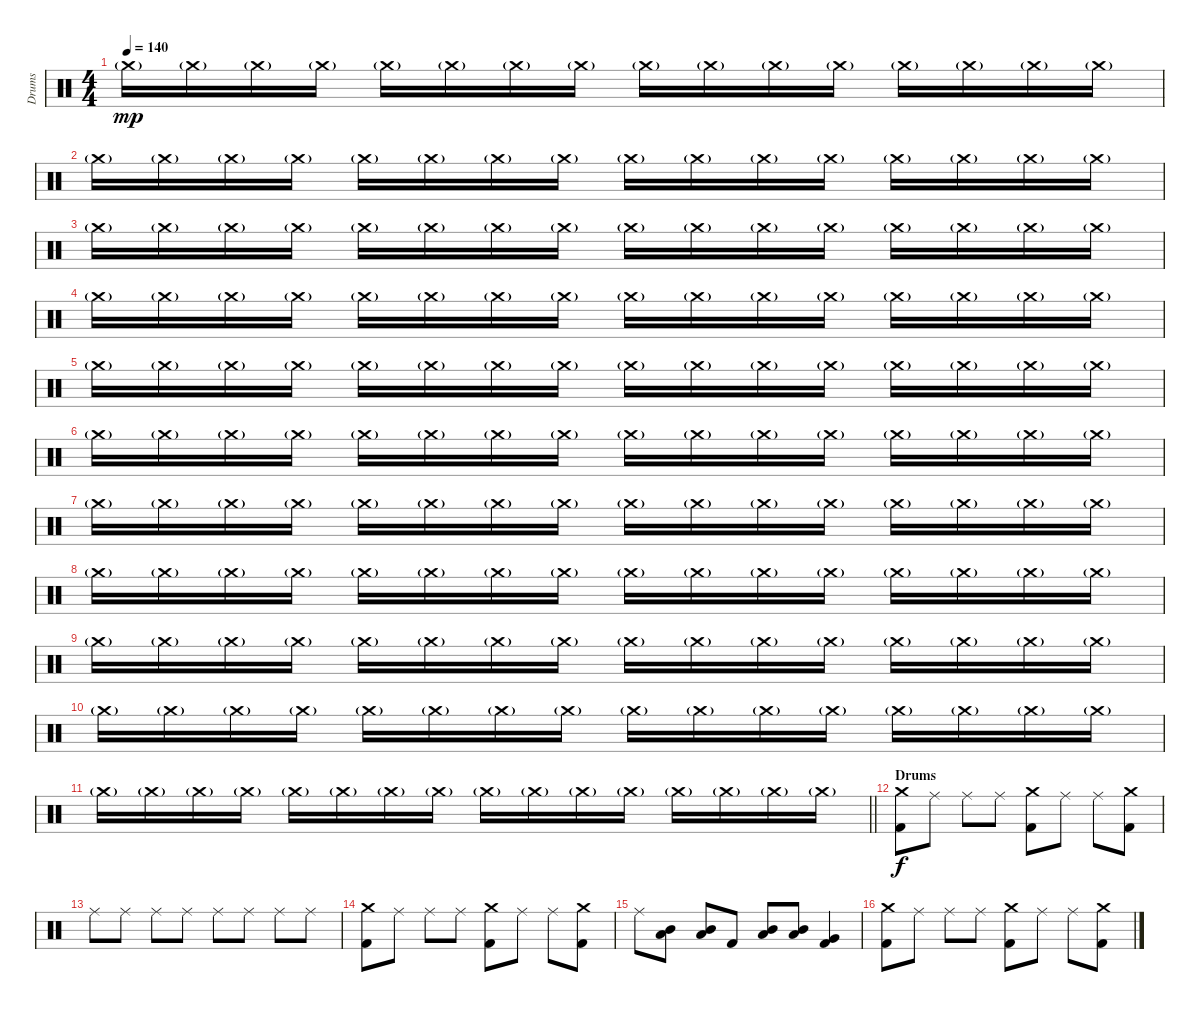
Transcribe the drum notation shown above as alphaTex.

\track ("Drums" "Drums") {instrument percussion}
\staff {score}
\articulation defaults
\ts (4 4)
\tempo 140
\clef neutral
\ks c "Crash medium (hit)"{g}.16{dy mp volume 6} "Crash medium (hit)"{g}.16 "Crash medium (hit)"{g}.16 "Crash medium (hit)"{g}.16 "Crash medium (hit)"{g}.16 "Crash medium (hit)"{g}.16 "Crash medium (hit)"{g}.16 "Crash medium (hit)"{g}.16 "Crash medium (hit)"{g}.16 "Crash medium (hit)"{g}.16 "Crash medium (hit)"{g}.16 "Crash medium (hit)"{g}.16 "Crash medium (hit)"{g}.16 "Crash medium (hit)"{g}.16 "Crash medium (hit)"{g}.16 "Crash medium (hit)"{g}.16
|
"Crash medium (hit)"{g}.16 "Crash medium (hit)"{g}.16 "Crash medium (hit)"{g}.16 "Crash medium (hit)"{g}.16 "Crash medium (hit)"{g}.16 "Crash medium (hit)"{g}.16 "Crash medium (hit)"{g}.16 "Crash medium (hit)"{g}.16 "Crash medium (hit)"{g}.16 "Crash medium (hit)"{g}.16 "Crash medium (hit)"{g}.16 "Crash medium (hit)"{g}.16 "Crash medium (hit)"{g}.16 "Crash medium (hit)"{g}.16 "Crash medium (hit)"{g}.16 "Crash medium (hit)"{g}.16 |
"Crash medium (hit)"{g}.16 "Crash medium (hit)"{g}.16 "Crash medium (hit)"{g}.16 "Crash medium (hit)"{g}.16 "Crash medium (hit)"{g}.16 "Crash medium (hit)"{g}.16 "Crash medium (hit)"{g}.16 "Crash medium (hit)"{g}.16 "Crash medium (hit)"{g}.16 "Crash medium (hit)"{g}.16 "Crash medium (hit)"{g}.16 "Crash medium (hit)"{g}.16 "Crash medium (hit)"{g}.16 "Crash medium (hit)"{g}.16 "Crash medium (hit)"{g}.16 "Crash medium (hit)"{g}.16 |
"Crash medium (hit)"{g}.16{volume 10} "Crash medium (hit)"{g}.16 "Crash medium (hit)"{g}.16 "Crash medium (hit)"{g}.16 "Crash medium (hit)"{g}.16 "Crash medium (hit)"{g}.16 "Crash medium (hit)"{g}.16 "Crash medium (hit)"{g}.16 "Crash medium (hit)"{g}.16 "Crash medium (hit)"{g}.16 "Crash medium (hit)"{g}.16 "Crash medium (hit)"{g}.16 "Crash medium (hit)"{g}.16 "Crash medium (hit)"{g}.16 "Crash medium (hit)"{g}.16 "Crash medium (hit)"{g}.16 |
"Crash medium (hit)"{g}.16 "Crash medium (hit)"{g}.16 "Crash medium (hit)"{g}.16 "Crash medium (hit)"{g}.16 "Crash medium (hit)"{g}.16 "Crash medium (hit)"{g}.16 "Crash medium (hit)"{g}.16 "Crash medium (hit)"{g}.16 "Crash medium (hit)"{g}.16 "Crash medium (hit)"{g}.16 "Crash medium (hit)"{g}.16 "Crash medium (hit)"{g}.16 "Crash medium (hit)"{g}.16 "Crash medium (hit)"{g}.16 "Crash medium (hit)"{g}.16 "Crash medium (hit)"{g}.16 |
"Crash medium (hit)"{g}.16 "Crash medium (hit)"{g}.16 "Crash medium (hit)"{g}.16 "Crash medium (hit)"{g}.16 "Crash medium (hit)"{g}.16 "Crash medium (hit)"{g}.16 "Crash medium (hit)"{g}.16 "Crash medium (hit)"{g}.16 "Crash medium (hit)"{g}.16 "Crash medium (hit)"{g}.16 "Crash medium (hit)"{g}.16 "Crash medium (hit)"{g}.16 "Crash medium (hit)"{g}.16 "Crash medium (hit)"{g}.16 "Crash medium (hit)"{g}.16 "Crash medium (hit)"{g}.16 |
"Crash medium (hit)"{g}.16 "Crash medium (hit)"{g}.16 "Crash medium (hit)"{g}.16 "Crash medium (hit)"{g}.16 "Crash medium (hit)"{g}.16 "Crash medium (hit)"{g}.16 "Crash medium (hit)"{g}.16 "Crash medium (hit)"{g}.16 "Crash medium (hit)"{g}.16 "Crash medium (hit)"{g}.16 "Crash medium (hit)"{g}.16 "Crash medium (hit)"{g}.16 "Crash medium (hit)"{g}.16 "Crash medium (hit)"{g}.16 "Crash medium (hit)"{g}.16 "Crash medium (hit)"{g}.16 |
"Crash medium (hit)"{g}.16{volume 13} "Crash medium (hit)"{g}.16 "Crash medium (hit)"{g}.16 "Crash medium (hit)"{g}.16 "Crash medium (hit)"{g}.16 "Crash medium (hit)"{g}.16 "Crash medium (hit)"{g}.16 "Crash medium (hit)"{g}.16 "Crash medium (hit)"{g}.16 "Crash medium (hit)"{g}.16 "Crash medium (hit)"{g}.16 "Crash medium (hit)"{g}.16 "Crash medium (hit)"{g}.16 "Crash medium (hit)"{g}.16 "Crash medium (hit)"{g}.16 "Crash medium (hit)"{g}.16 |
"Crash medium (hit)"{g}.16 "Crash medium (hit)"{g}.16 "Crash medium (hit)"{g}.16 "Crash medium (hit)"{g}.16 "Crash medium (hit)"{g}.16 "Crash medium (hit)"{g}.16 "Crash medium (hit)"{g}.16 "Crash medium (hit)"{g}.16 "Crash medium (hit)"{g}.16 "Crash medium (hit)"{g}.16 "Crash medium (hit)"{g}.16 "Crash medium (hit)"{g}.16 "Crash medium (hit)"{g}.16 "Crash medium (hit)"{g}.16 "Crash medium (hit)"{g}.16 "Crash medium (hit)"{g}.16 |
"Crash medium (hit)"{g}.16 "Crash medium (hit)"{g}.16 "Crash medium (hit)"{g}.16 "Crash medium (hit)"{g}.16 "Crash medium (hit)"{g}.16 "Crash medium (hit)"{g}.16 "Crash medium (hit)"{g}.16 "Crash medium (hit)"{g}.16 "Crash medium (hit)"{g}.16 "Crash medium (hit)"{g}.16 "Crash medium (hit)"{g}.16 "Crash medium (hit)"{g}.16 "Crash medium (hit)"{g}.16 "Crash medium (hit)"{g}.16 "Crash medium (hit)"{g}.16 "Crash medium (hit)"{g}.16 |
\barLineRight lightlight "Crash medium (hit)"{g}.16 "Crash medium (hit)"{g}.16 "Crash medium (hit)"{g}.16 "Crash medium (hit)"{g}.16 "Crash medium (hit)"{g}.16 "Crash medium (hit)"{g}.16 "Crash medium (hit)"{g}.16 "Crash medium (hit)"{g}.16 "Crash medium (hit)"{g}.16 "Crash medium (hit)"{g}.16 "Crash medium (hit)"{g}.16 "Crash medium (hit)"{g}.16 "Crash medium (hit)"{g}.16 "Crash medium (hit)"{g}.16 "Crash medium (hit)"{g}.16 "Crash medium (hit)"{g}.16
|
\section ("" "Drums")
("Crash medium (hit)" "Kick (hit) 2").8{dy f} "Ride (middle)".8 "Ride (middle)".8 "Ride (middle)".8 ("Crash medium (hit)" "Kick (hit) 2").8 "Ride (middle)".8 "Ride (middle)".8 ("Crash medium (hit)" "Kick (hit) 2").8 |
"Ride (middle)".8 "Ride (middle)".8 "Ride (middle)".8 "Ride (middle)".8 "Ride (middle)".8 "Ride (middle)".8 "Ride (middle)".8 "Ride (middle)".8 |
("Crash medium (hit)" "Kick (hit) 2").8 "Ride (middle)".8 "Ride (middle)".8 "Ride (middle)".8 ("Crash medium (hit)" "Kick (hit) 2").8 "Ride (middle)".8 "Ride (middle)".8 ("Crash medium (hit)" "Kick (hit) 2").8 |
"Ride (middle)".8 ("Mid Tom (hit)" "Low Tom (hit)").8 ("Mid Tom (hit)" "Low Tom (hit)").8 "Kick (hit) 2".8 ("Mid Tom (hit)" "Low Tom (hit)").8 ("Mid Tom (hit)" "Low Tom (hit)").8 ("Very Low Tom (hit)" "Kick (hit) 2").4 |
("Crash medium (hit)" "Kick (hit) 2").8 "Ride (middle)".8 "Ride (middle)".8 "Ride (middle)".8 ("Crash medium (hit)" "Kick (hit) 2").8 "Ride (middle)".8 "Ride (middle)".8 ("Crash medium (hit)" "Kick (hit) 2").8
